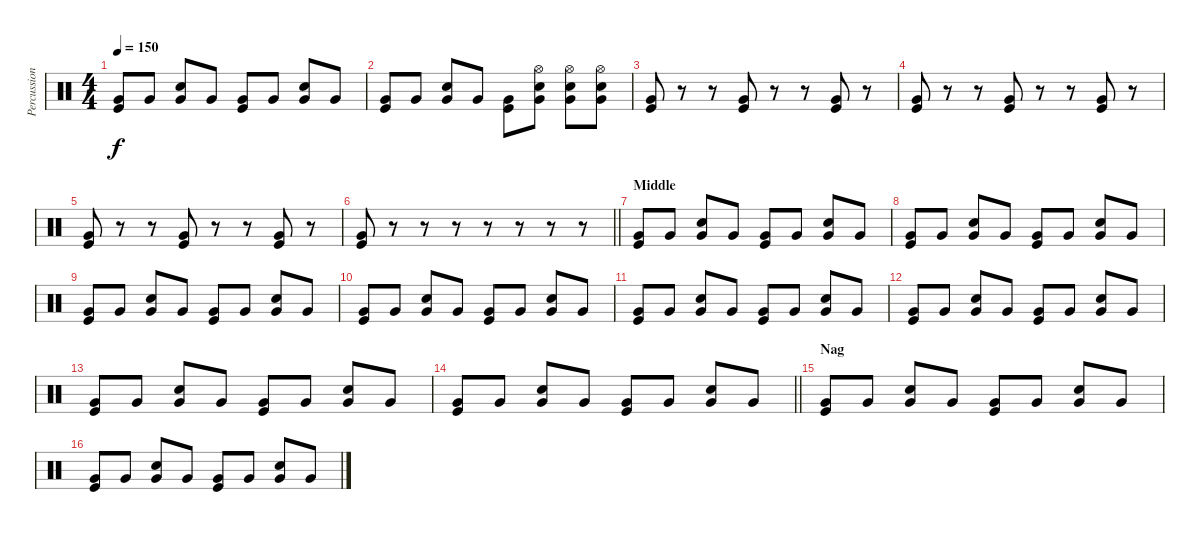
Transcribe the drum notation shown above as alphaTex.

\track ("Percussion" "Percussion") {instrument percussion}
\staff {score}
\articulation defaults
\ts (4 4)
\tempo 150
\clef neutral
\ks c
("Very Low Tom (hit)" "Kick (hit)").8{dy f} "Very Low Tom (hit)".8 ("Very Low Tom (hit)" "Snare (hit) 2").8 "Very Low Tom (hit)".8 ("Very Low Tom (hit)" "Kick (hit)").8 "Very Low Tom (hit)".8 ("Very Low Tom (hit)" "Snare (hit) 2").8 "Very Low Tom (hit)".8 |
("Very Low Tom (hit)" "Kick (hit)").8 "Very Low Tom (hit)".8 ("Very Low Tom (hit)" "Snare (hit) 2").8 "Very Low Tom (hit)".8 ("Very Low Tom (hit)" "Kick (hit)").8 ("Very Low Tom (hit)" "Snare (hit) 2" "Hi-Hat (open)").8 ("Very Low Tom (hit)" "Snare (hit) 2" "Hi-Hat (open)").8 ("Very Low Tom (hit)" "Snare (hit) 2" "Hi-Hat (open)").8 |
("Kick (hit)" "Very Low Tom (hit)").8 r.8 r.8 ("Kick (hit)" "Very Low Tom (hit)").8 r.8 r.8 ("Kick (hit)" "Very Low Tom (hit)").8 r.8 |
("Very Low Tom (hit)" "Kick (hit)").8 r.8 r.8 ("Very Low Tom (hit)" "Kick (hit)").8 r.8 r.8 ("Very Low Tom (hit)" "Kick (hit)").8 r.8 |
("Very Low Tom (hit)" "Kick (hit)").8 r.8 r.8 ("Very Low Tom (hit)" "Kick (hit)").8 r.8 r.8 ("Very Low Tom (hit)" "Kick (hit)").8 r.8 |
\barLineRight lightlight
("Very Low Tom (hit)" "Kick (hit)").8 r.8 r.8 r.8 r.8 r.8 r.8 r.8 |
\section ("" "Middle")
("Very Low Tom (hit)" "Kick (hit)").8 "Very Low Tom (hit)".8 ("Very Low Tom (hit)" "Snare (hit) 2").8 "Very Low Tom (hit)".8 ("Very Low Tom (hit)" "Kick (hit)").8 "Very Low Tom (hit)".8 ("Very Low Tom (hit)" "Snare (hit) 2").8 "Very Low Tom (hit)".8 |
("Very Low Tom (hit)" "Kick (hit)").8 "Very Low Tom (hit)".8 ("Very Low Tom (hit)" "Snare (hit) 2").8 "Very Low Tom (hit)".8 ("Very Low Tom (hit)" "Kick (hit)").8 "Very Low Tom (hit)".8 ("Very Low Tom (hit)" "Snare (hit) 2").8 "Very Low Tom (hit)".8 |
("Very Low Tom (hit)" "Kick (hit)").8 "Very Low Tom (hit)".8 ("Very Low Tom (hit)" "Snare (hit) 2").8 "Very Low Tom (hit)".8 ("Very Low Tom (hit)" "Kick (hit)").8 "Very Low Tom (hit)".8 ("Very Low Tom (hit)" "Snare (hit) 2").8 "Very Low Tom (hit)".8 |
("Very Low Tom (hit)" "Kick (hit)").8 "Very Low Tom (hit)".8 ("Very Low Tom (hit)" "Snare (hit) 2").8 "Very Low Tom (hit)".8 ("Very Low Tom (hit)" "Kick (hit)").8 "Very Low Tom (hit)".8 ("Very Low Tom (hit)" "Snare (hit) 2").8 "Very Low Tom (hit)".8 |
("Very Low Tom (hit)" "Kick (hit)").8 "Very Low Tom (hit)".8 ("Very Low Tom (hit)" "Snare (hit) 2").8 "Very Low Tom (hit)".8 ("Very Low Tom (hit)" "Kick (hit)").8 "Very Low Tom (hit)".8 ("Very Low Tom (hit)" "Snare (hit) 2").8 "Very Low Tom (hit)".8 |
("Very Low Tom (hit)" "Kick (hit)").8 "Very Low Tom (hit)".8 ("Very Low Tom (hit)" "Snare (hit) 2").8 "Very Low Tom (hit)".8 ("Very Low Tom (hit)" "Kick (hit)").8 "Very Low Tom (hit)".8 ("Very Low Tom (hit)" "Snare (hit) 2").8 "Very Low Tom (hit)".8 |
("Very Low Tom (hit)" "Kick (hit)").8 "Very Low Tom (hit)".8 ("Very Low Tom (hit)" "Snare (hit) 2").8 "Very Low Tom (hit)".8 ("Very Low Tom (hit)" "Kick (hit)").8 "Very Low Tom (hit)".8 ("Very Low Tom (hit)" "Snare (hit) 2").8 "Very Low Tom (hit)".8 |
\barLineRight lightlight
("Very Low Tom (hit)" "Kick (hit)").8 "Very Low Tom (hit)".8 ("Very Low Tom (hit)" "Snare (hit) 2").8 "Very Low Tom (hit)".8 ("Very Low Tom (hit)" "Kick (hit)").8 "Very Low Tom (hit)".8 ("Very Low Tom (hit)" "Snare (hit) 2").8 "Very Low Tom (hit)".8 |
\section ("" "Nag")
("Very Low Tom (hit)" "Kick (hit)").8 "Very Low Tom (hit)".8 ("Very Low Tom (hit)" "Snare (hit) 2").8 "Very Low Tom (hit)".8 ("Very Low Tom (hit)" "Kick (hit)").8 "Very Low Tom (hit)".8 ("Very Low Tom (hit)" "Snare (hit) 2").8 "Very Low Tom (hit)".8 |
("Very Low Tom (hit)" "Kick (hit)").8 "Very Low Tom (hit)".8 ("Very Low Tom (hit)" "Snare (hit) 2").8 "Very Low Tom (hit)".8 ("Very Low Tom (hit)" "Kick (hit)").8 "Very Low Tom (hit)".8 ("Very Low Tom (hit)" "Snare (hit) 2").8 "Very Low Tom (hit)".8
